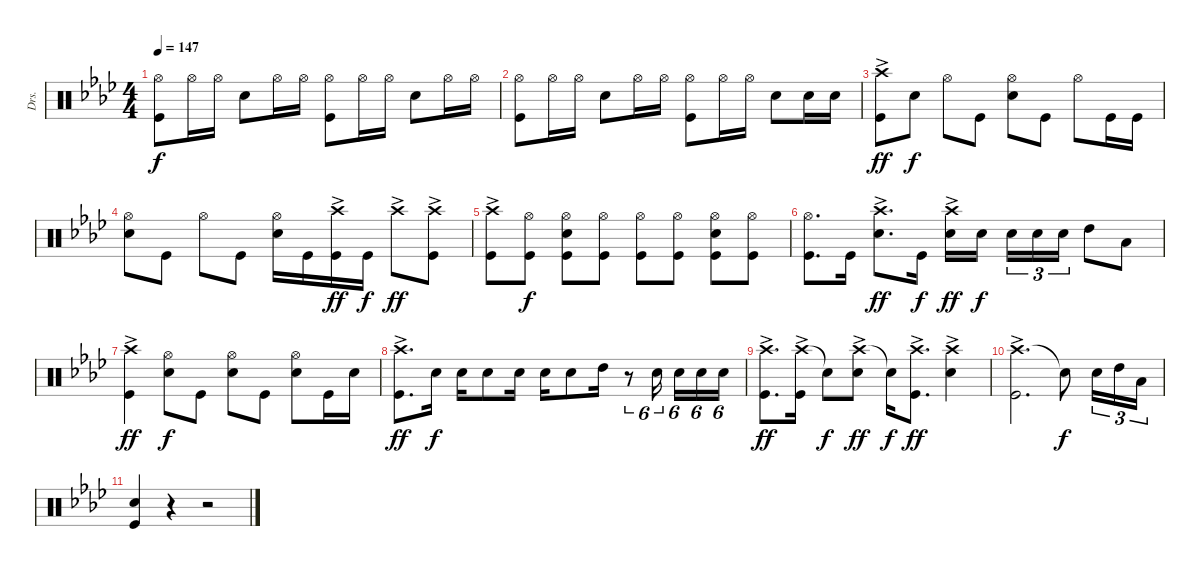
\track ("Drs." "Drs.") {instrument percussion}
\staff {score}
\articulation defaults
\ts (4 4)
\tempo 147
\clef neutral
\ks fminor
("Hi-Hat (open)" "Kick (hit)").8{dy f} "Hi-Hat (open)".16 "Hi-Hat (open)".16 "Snare (hit) 2".8 "Hi-Hat (open)".16 "Hi-Hat (open)".16 ("Hi-Hat (open)" "Kick (hit)").8 "Hi-Hat (open)".16 "Hi-Hat (open)".16 "Snare (hit) 2".8 "Hi-Hat (open)".16 "Hi-Hat (open)".16 |
("Hi-Hat (open)" "Kick (hit)").8 "Hi-Hat (open)".16 "Hi-Hat (open)".16 "Snare (hit) 2".8 "Hi-Hat (open)".16 "Hi-Hat (open)".16 ("Hi-Hat (open)" "Kick (hit)").8 "Hi-Hat (open)".16 "Hi-Hat (open)".16 "Snare (hit) 2".8 "Snare (hit) 2".16 "Snare (hit) 2".16 |
("Crash high (hit)"{ac} "Kick (hit)").8{dy ff} "Snare (hit) 2".8{dy f} "Hi-Hat (open)".8 "Kick (hit)".8 ("Hi-Hat (open)" "Snare (hit) 2").8 "Kick (hit)".8 "Hi-Hat (open)".8 "Kick (hit)".16 "Kick (hit)".16 |
("Hi-Hat (open)" "Snare (hit) 2").8 "Kick (hit)".8 "Hi-Hat (open)".8 "Kick (hit)".8 ("Hi-Hat (open)" "Snare (hit) 2").16 "Kick (hit)".16 ("Crash high (hit)"{ac} "Kick (hit)").16{dy ff} "Kick (hit)".16{dy f} "Crash high (hit)"{ac}.8{dy ff} ("Crash high (hit)"{ac} "Kick (hit)").8 |
("Crash high (hit)"{ac} "Kick (hit)").8 ("Hi-Hat (open)" "Kick (hit)").8{dy f} ("Hi-Hat (open)" "Snare (hit) 2" "Kick (hit)").8 ("Hi-Hat (open)" "Kick (hit)").8 ("Hi-Hat (open)" "Kick (hit)").8 ("Hi-Hat (open)" "Kick (hit)").8 ("Hi-Hat (open)" "Snare (hit) 2" "Kick (hit)").8 ("Hi-Hat (open)" "Kick (hit)").8 |
("Hi-Hat (open)" "Kick (hit)").8{d} "Kick (hit)".16 ("Crash high (hit)"{ac} "Snare (hit) 2").8{d dy ff} "Kick (hit)".16{dy f} ("Crash high (hit)"{ac} "Snare (hit) 2").16{dy ff} "Snare (hit) 2".16{dy f beam splitsecondary} "Snare (hit) 2".16{tu (3 2)} "Snare (hit) 2".16{tu (3 2)} "Snare (hit) 2".16{tu (3 2)} "High Tom (hit)".8 "Low Tom (hit)".8 |
("Crash high (hit)"{ac} "Kick (hit)").4{dy ff} ("Hi-Hat (open)" "Snare (hit) 2").8{dy f} "Kick (hit)".8 ("Hi-Hat (open)" "Snare (hit) 2").8 "Kick (hit)".8 ("Hi-Hat (open)" "Snare (hit) 2").8 "Kick (hit)".16 "Snare (hit) 2".16 |
("Crash high (hit)"{ac} "Kick (hit)").8{d dy ff} "Snare (hit) 2".16{dy f} "Snare (hit) 2".16 "Snare (hit) 2".8 "Snare (hit) 2".16 "Snare (hit) 2".16 "Snare (hit) 2".8 "High Tom (hit)".16 r.8{tu (6 4)} "Snare (hit) 2".16{tu (6 4)} "Snare (hit) 2".16{tu (6 4)} "Snare (hit) 2".16{tu (6 4)} "Snare (hit) 2".16{tu (6 4)} |
("Crash high (hit)"{ac} "Kick (hit)").8{d dy ff} ("Crash high (hit)"{ac} "Kick (hit)").16 "Snare (hit)"{t}.8{dy f} ("Crash high (hit)"{ac} "Snare (hit) 2").8{dy ff} "Snare (hit)"{t}.16{dy f} ("Crash high (hit)"{ac} "Kick (hit)").8{d dy ff} ("Crash high (hit)"{ac} "Snare (hit) 2").4 |
("Crash high (hit)"{ac} "Kick (hit)").2{d} "Snare (hit)"{t}.8{dy f} "Snare (hit) 2".16{tu (3 2)} "High Tom (hit)".16{tu (3 2)} "Low Tom (hit)".16{tu (3 2)} |
("Snare (hit) 2" "Kick (hit)").4 r.4 r.2
